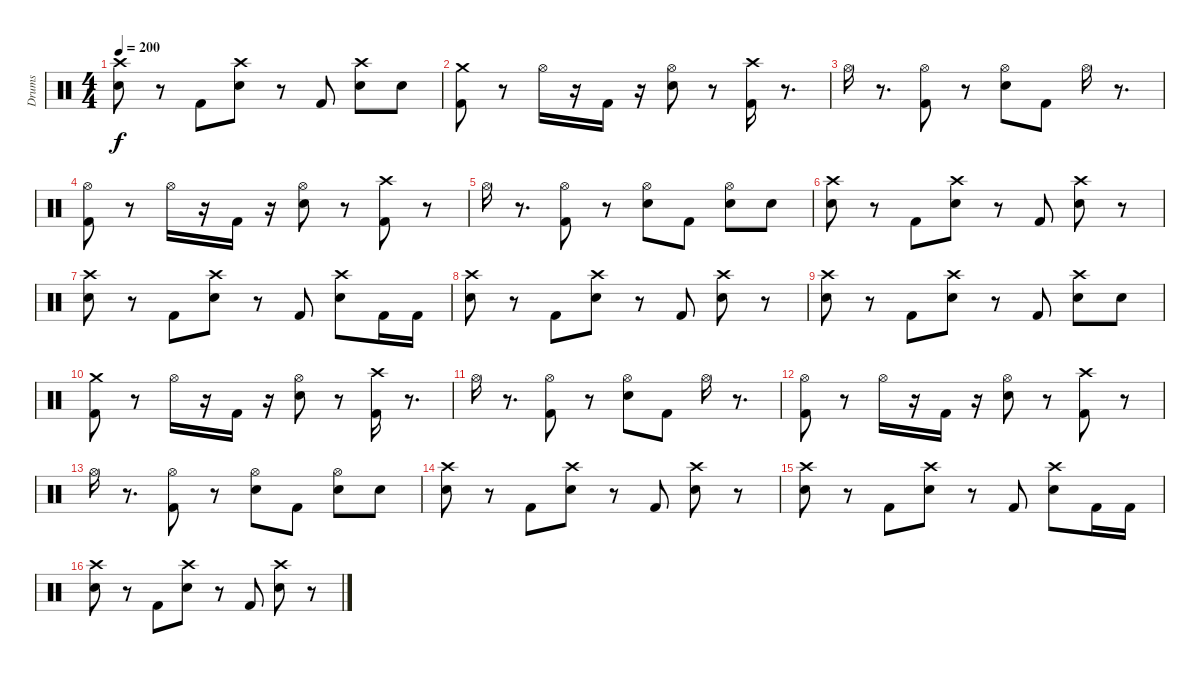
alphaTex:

\track ("Drums" "Drums") {instrument percussion}
\staff {score}
\articulation defaults
\ts (4 4)
\tempo 200
\clef neutral
\ks c
("Snare (hit) 2" "Crash high (hit)").8{dy f} r.8 "Kick (hit) 2".8 ("Snare (hit) 2" "Crash high (hit)").8 r.8 "Kick (hit) 2".8 ("Snare (hit) 2" "Crash high (hit)").8 "Snare (hit) 2".8 |
("Kick (hit) 2" "Crash medium (hit)").8 r.8 "Hi-Hat (open)".16 r.16 "Kick (hit) 2".16 r.16 ("Snare (hit) 2" "Hi-Hat (open)").8 r.8 ("Kick (hit) 2" "Crash high (hit)").16 r.8{d} |
"Hi-Hat (open)".16 r.8{d} ("Kick (hit) 2" "Hi-Hat (open)").8 r.8 ("Snare (hit) 2" "Hi-Hat (open)").8 "Kick (hit) 2".8 "Hi-Hat (open)".16 r.8{d} |
("Kick (hit) 2" "Hi-Hat (open)").8 r.8 "Hi-Hat (open)".16 r.16 "Kick (hit) 2".16 r.16 ("Snare (hit) 2" "Hi-Hat (open)").8 r.8 ("Kick (hit) 2" "Crash high (hit)").8 r.8 |
"Hi-Hat (open)".16 r.8{d} ("Kick (hit) 2" "Hi-Hat (open)").8 r.8 ("Snare (hit) 2" "Hi-Hat (open)").8 "Kick (hit) 2".8 ("Snare (hit) 2" "Hi-Hat (open)").8 "Snare (hit) 2".8 |
("Snare (hit) 2" "Crash high (hit)").8 r.8 "Kick (hit) 2".8 ("Snare (hit) 2" "Crash high (hit)").8 r.8 "Kick (hit) 2".8 ("Snare (hit) 2" "Crash high (hit)").8 r.8 |
("Snare (hit) 2" "Crash high (hit)").8 r.8 "Kick (hit) 2".8 ("Snare (hit) 2" "Crash high (hit)").8 r.8 "Kick (hit) 2".8 ("Snare (hit) 2" "Crash high (hit)").8 "Kick (hit) 2".16 "Kick (hit) 2".16 |
("Snare (hit) 2" "Crash high (hit)").8 r.8 "Kick (hit) 2".8 ("Snare (hit) 2" "Crash high (hit)").8 r.8 "Kick (hit) 2".8 ("Snare (hit) 2" "Crash high (hit)").8 r.8 |
("Snare (hit) 2" "Crash high (hit)").8 r.8 "Kick (hit) 2".8 ("Snare (hit) 2" "Crash high (hit)").8 r.8 "Kick (hit) 2".8 ("Snare (hit) 2" "Crash high (hit)").8 "Snare (hit) 2".8 |
("Kick (hit) 2" "Crash medium (hit)").8 r.8 "Hi-Hat (open)".16 r.16 "Kick (hit) 2".16 r.16 ("Snare (hit) 2" "Hi-Hat (open)").8 r.8 ("Kick (hit) 2" "Crash high (hit)").16 r.8{d} |
"Hi-Hat (open)".16 r.8{d} ("Kick (hit) 2" "Hi-Hat (open)").8 r.8 ("Snare (hit) 2" "Hi-Hat (open)").8 "Kick (hit) 2".8 "Hi-Hat (open)".16 r.8{d} |
("Kick (hit) 2" "Hi-Hat (open)").8 r.8 "Hi-Hat (open)".16 r.16 "Kick (hit) 2".16 r.16 ("Snare (hit) 2" "Hi-Hat (open)").8 r.8 ("Kick (hit) 2" "Crash high (hit)").8 r.8 |
"Hi-Hat (open)".16 r.8{d} ("Kick (hit) 2" "Hi-Hat (open)").8 r.8 ("Snare (hit) 2" "Hi-Hat (open)").8 "Kick (hit) 2".8 ("Snare (hit) 2" "Hi-Hat (open)").8 "Snare (hit) 2".8 |
("Snare (hit) 2" "Crash high (hit)").8 r.8 "Kick (hit) 2".8 ("Snare (hit) 2" "Crash high (hit)").8 r.8 "Kick (hit) 2".8 ("Snare (hit) 2" "Crash high (hit)").8 r.8 |
("Snare (hit) 2" "Crash high (hit)").8 r.8 "Kick (hit) 2".8 ("Snare (hit) 2" "Crash high (hit)").8 r.8 "Kick (hit) 2".8 ("Snare (hit) 2" "Crash high (hit)").8 "Kick (hit) 2".16 "Kick (hit) 2".16 |
("Snare (hit) 2" "Crash high (hit)").8 r.8 "Kick (hit) 2".8 ("Snare (hit) 2" "Crash high (hit)").8 r.8 "Kick (hit) 2".8 ("Snare (hit) 2" "Crash high (hit)").8 r.8
